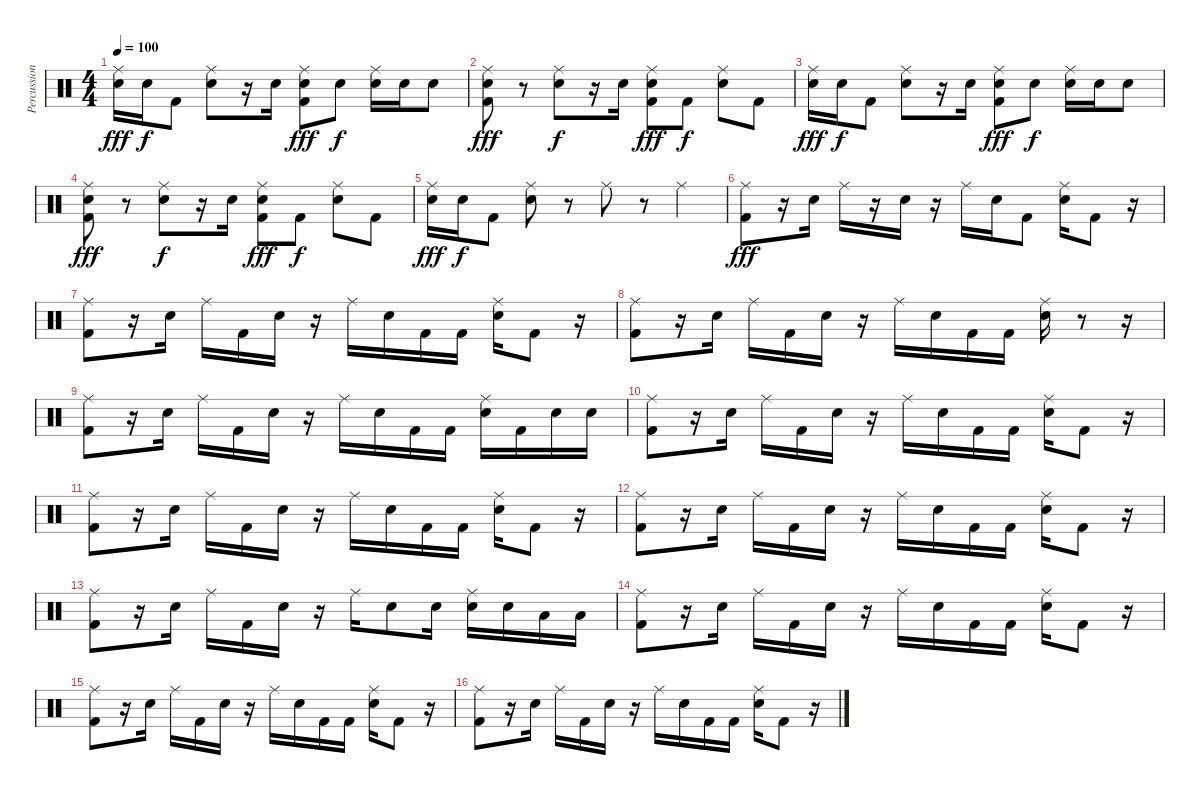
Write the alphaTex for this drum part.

\track ("Percussion" "Percussion") {instrument percussion}
\staff {score}
\articulation defaults
\ts (4 4)
\tempo 100
\clef neutral
\ks c
("Ride (middle)" "Hand Clap (hit)").16{dy fff} "Snare (hit) 2".16{dy f} "Kick (hit) 2".8 ("Ride (middle)" "Snare (hit) 2").8 r.16 "Snare (hit) 2".16 ("Ride (middle)" "Hand Clap (hit)" "Kick (hit) 2").8{dy fff} "Snare (hit) 2".8{dy f} ("Ride (middle)" "Snare (hit) 2").16 "Snare (hit) 2".16 "Snare (hit) 2".8 |
("Ride (middle)" "Hand Clap (hit)" "Kick (hit) 2").8{dy fff} r.8 ("Ride (middle)" "Snare (hit) 2").8{dy f} r.16 "Snare (hit) 2".16 ("Ride (middle)" "Hand Clap (hit)" "Kick (hit) 2").8{dy fff} "Kick (hit) 2".8{dy f} ("Ride (middle)" "Snare (hit) 2").8 "Kick (hit) 2".8 |
("Ride (middle)" "Hand Clap (hit)").16{dy fff} "Snare (hit) 2".16{dy f} "Kick (hit) 2".8 ("Ride (middle)" "Snare (hit) 2").8 r.16 "Snare (hit) 2".16 ("Ride (middle)" "Hand Clap (hit)" "Kick (hit) 2").8{dy fff} "Snare (hit) 2".8{dy f} ("Ride (middle)" "Snare (hit) 2").16 "Snare (hit) 2".16 "Snare (hit) 2".8 |
("Ride (middle)" "Hand Clap (hit)" "Kick (hit) 2").8{dy fff} r.8 ("Ride (middle)" "Snare (hit) 2").8{dy f} r.16 "Snare (hit) 2".16 ("Ride (middle)" "Hand Clap (hit)" "Kick (hit) 2").8{dy fff} "Kick (hit) 2".8{dy f} ("Ride (middle)" "Snare (hit) 2").8 "Kick (hit) 2".8 |
("Ride (middle)" "Hand Clap (hit)").16{dy fff} "Snare (hit) 2".16{dy f} "Kick (hit) 2".8 ("Ride (middle)" "Snare (hit) 2").8 r.8 "Ride (middle)".8 r.8 "Ride (middle)".4 |
("Ride (middle)" "Kick (hit) 2").8{dy fff} r.16 "Snare (hit) 2".16 "Ride (middle)".16 r.16 "Snare (hit) 2".16 r.16 "Ride (middle)".16 "Snare (hit) 2".16 "Kick (hit) 2".8 ("Ride (middle)" "Snare (hit) 2").16 "Kick (hit) 2".8 r.16 |
("Ride (middle)" "Kick (hit) 2").8 r.16 "Snare (hit) 2".16 "Ride (middle)".16 "Kick (hit) 2".16 "Snare (hit) 2".16 r.16 "Ride (middle)".16 "Snare (hit) 2".16 "Kick (hit) 2".16 "Kick (hit) 2".16 ("Ride (middle)" "Snare (hit) 2").16 "Kick (hit) 2".8 r.16 |
("Ride (middle)" "Kick (hit) 2").8 r.16 "Snare (hit) 2".16 "Ride (middle)".16 "Kick (hit) 2".16 "Snare (hit) 2".16 r.16 "Ride (middle)".16 "Snare (hit) 2".16 "Kick (hit) 2".16 "Kick (hit) 2".16 ("Ride (middle)" "Snare (hit) 2").16 r.8 r.16 |
("Ride (middle)" "Kick (hit) 2").8 r.16 "Snare (hit) 2".16 "Ride (middle)".16 "Kick (hit) 2".16 "Snare (hit) 2".16 r.16 "Ride (middle)".16 "Snare (hit) 2".16 "Kick (hit) 2".16 "Kick (hit) 2".16 ("Ride (middle)" "Snare (hit) 2").16 "Kick (hit) 2".16 "Snare (hit) 2".16 "Snare (hit) 2".16 |
("Ride (middle)" "Kick (hit) 2").8 r.16 "Snare (hit) 2".16 "Ride (middle)".16 "Kick (hit) 2".16 "Snare (hit) 2".16 r.16 "Ride (middle)".16 "Snare (hit) 2".16 "Kick (hit) 2".16 "Kick (hit) 2".16 ("Ride (middle)" "Snare (hit) 2").16 "Kick (hit) 2".8 r.16 |
("Ride (middle)" "Kick (hit) 2").8 r.16 "Snare (hit) 2".16 "Ride (middle)".16 "Kick (hit) 2".16 "Snare (hit) 2".16 r.16 "Ride (middle)".16 "Snare (hit) 2".16 "Kick (hit) 2".16 "Kick (hit) 2".16 ("Ride (middle)" "Snare (hit) 2").16 "Kick (hit) 2".8 r.16 |
("Ride (middle)" "Kick (hit) 2").8 r.16 "Snare (hit) 2".16 "Ride (middle)".16 "Kick (hit) 2".16 "Snare (hit) 2".16 r.16 "Ride (middle)".16 "Snare (hit) 2".16 "Kick (hit) 2".16 "Kick (hit) 2".16 ("Ride (middle)" "Snare (hit) 2").16 "Kick (hit) 2".8 r.16 |
("Ride (middle)" "Kick (hit) 2").8 r.16 "Snare (hit) 2".16 "Ride (middle)".16 "Kick (hit) 2".16 "Snare (hit) 2".16 r.16 "Ride (middle)".16 "Snare (hit) 2".8 "Snare (hit) 2".16 ("Ride (middle)" "Snare (hit) 2").16 "Snare (hit) 2".16 "Low Tom (hit)".16 "Low Tom (hit)".16 |
("Ride (middle)" "Kick (hit) 2").8 r.16 "Snare (hit) 2".16 "Ride (middle)".16 "Kick (hit) 2".16 "Snare (hit) 2".16 r.16 "Ride (middle)".16 "Snare (hit) 2".16 "Kick (hit) 2".16 "Kick (hit) 2".16 ("Ride (middle)" "Snare (hit) 2").16 "Kick (hit) 2".8 r.16 |
("Ride (middle)" "Kick (hit) 2").8 r.16 "Snare (hit) 2".16 "Ride (middle)".16 "Kick (hit) 2".16 "Snare (hit) 2".16 r.16 "Ride (middle)".16 "Snare (hit) 2".16 "Kick (hit) 2".16 "Kick (hit) 2".16 ("Ride (middle)" "Snare (hit) 2").16 "Kick (hit) 2".8 r.16 |
("Ride (middle)" "Kick (hit) 2").8 r.16 "Snare (hit) 2".16 "Ride (middle)".16 "Kick (hit) 2".16 "Snare (hit) 2".16 r.16 "Ride (middle)".16 "Snare (hit) 2".16 "Kick (hit) 2".16 "Kick (hit) 2".16 ("Ride (middle)" "Snare (hit) 2").16 "Kick (hit) 2".8 r.16
